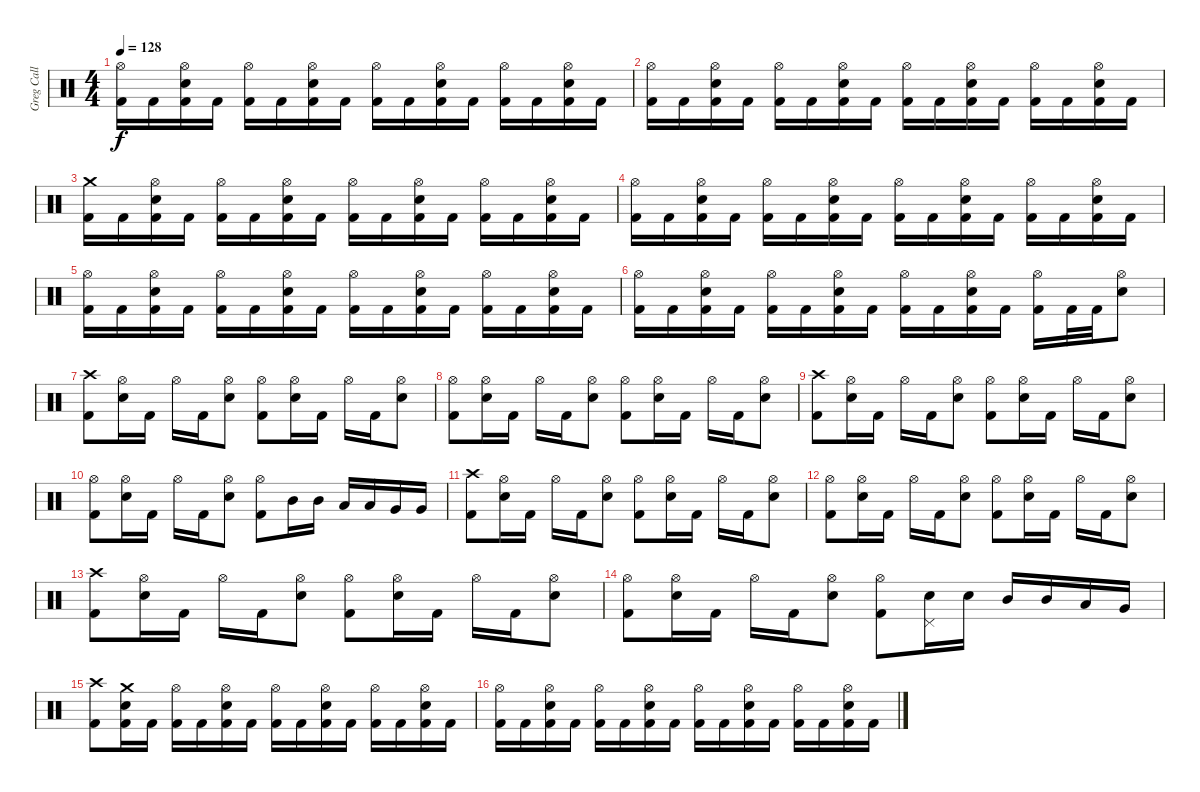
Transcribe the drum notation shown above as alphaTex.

\track ("Greg Call (Drums)" "Greg Call ") {instrument percussion}
\staff {score}
\articulation defaults
\ts (4 4)
\tempo 128
\clef neutral
\ks c
("Hi-Hat (open)" "Kick (hit) 2").16{dy f} "Kick (hit) 2".16 ("Hi-Hat (open)" "Snare (hit) 2" "Kick (hit) 2").16 "Kick (hit) 2".16 ("Hi-Hat (open)" "Kick (hit) 2").16 "Kick (hit) 2".16 ("Snare (hit) 2" "Hi-Hat (open)" "Kick (hit) 2").16 "Kick (hit) 2".16 ("Hi-Hat (open)" "Kick (hit) 2").16 "Kick (hit) 2".16 ("Snare (hit) 2" "Hi-Hat (open)" "Kick (hit) 2").16 "Kick (hit) 2".16 ("Hi-Hat (open)" "Kick (hit) 2").16 "Kick (hit) 2".16 ("Snare (hit) 2" "Hi-Hat (open)" "Kick (hit) 2").16 "Kick (hit) 2".16 |
("Hi-Hat (open)" "Kick (hit) 2").16 "Kick (hit) 2".16 ("Hi-Hat (open)" "Snare (hit) 2" "Kick (hit) 2").16 "Kick (hit) 2".16 ("Hi-Hat (open)" "Kick (hit) 2").16 "Kick (hit) 2".16 ("Snare (hit) 2" "Hi-Hat (open)" "Kick (hit) 2").16 "Kick (hit) 2".16 ("Hi-Hat (open)" "Kick (hit) 2").16 "Kick (hit) 2".16 ("Snare (hit) 2" "Hi-Hat (open)" "Kick (hit) 2").16 "Kick (hit) 2".16 ("Hi-Hat (open)" "Kick (hit) 2").16 "Kick (hit) 2".16 ("Snare (hit) 2" "Hi-Hat (open)" "Kick (hit) 2").16 "Kick (hit) 2".16 |
("Crash medium (hit)" "Kick (hit) 2").16 "Kick (hit) 2".16 ("Hi-Hat (open)" "Snare (hit) 2" "Kick (hit) 2").16 "Kick (hit) 2".16 ("Hi-Hat (open)" "Kick (hit) 2").16 "Kick (hit) 2".16 ("Snare (hit) 2" "Hi-Hat (open)" "Kick (hit) 2").16 "Kick (hit) 2".16 ("Hi-Hat (open)" "Kick (hit) 2").16 "Kick (hit) 2".16 ("Snare (hit) 2" "Hi-Hat (open)" "Kick (hit) 2").16 "Kick (hit) 2".16 ("Hi-Hat (open)" "Kick (hit) 2").16 "Kick (hit) 2".16 ("Snare (hit) 2" "Hi-Hat (open)" "Kick (hit) 2").16 "Kick (hit) 2".16 |
("Hi-Hat (open)" "Kick (hit) 2").16 "Kick (hit) 2".16 ("Hi-Hat (open)" "Snare (hit) 2" "Kick (hit) 2").16 "Kick (hit) 2".16 ("Hi-Hat (open)" "Kick (hit) 2").16 "Kick (hit) 2".16 ("Snare (hit) 2" "Hi-Hat (open)" "Kick (hit) 2").16 "Kick (hit) 2".16 ("Hi-Hat (open)" "Kick (hit) 2").16 "Kick (hit) 2".16 ("Snare (hit) 2" "Hi-Hat (open)" "Kick (hit) 2").16 "Kick (hit) 2".16 ("Hi-Hat (open)" "Kick (hit) 2").16 "Kick (hit) 2".16 ("Snare (hit) 2" "Hi-Hat (open)" "Kick (hit) 2").16 "Kick (hit) 2".16 |
("Hi-Hat (open)" "Kick (hit) 2").16 "Kick (hit) 2".16 ("Hi-Hat (open)" "Snare (hit) 2" "Kick (hit) 2").16 "Kick (hit) 2".16 ("Hi-Hat (open)" "Kick (hit) 2").16 "Kick (hit) 2".16 ("Snare (hit) 2" "Hi-Hat (open)" "Kick (hit) 2").16 "Kick (hit) 2".16 ("Hi-Hat (open)" "Kick (hit) 2").16 "Kick (hit) 2".16 ("Snare (hit) 2" "Hi-Hat (open)" "Kick (hit) 2").16 "Kick (hit) 2".16 ("Hi-Hat (open)" "Kick (hit) 2").16 "Kick (hit) 2".16 ("Snare (hit) 2" "Hi-Hat (open)" "Kick (hit) 2").16 "Kick (hit) 2".16 |
("Hi-Hat (open)" "Kick (hit) 2").16 "Kick (hit) 2".16 ("Hi-Hat (open)" "Snare (hit) 2" "Kick (hit) 2").16 "Kick (hit) 2".16 ("Hi-Hat (open)" "Kick (hit) 2").16 "Kick (hit) 2".16 ("Snare (hit) 2" "Hi-Hat (open)" "Kick (hit) 2").16 "Kick (hit) 2".16 ("Hi-Hat (open)" "Kick (hit) 2").16 "Kick (hit) 2".16 ("Snare (hit) 2" "Hi-Hat (open)" "Kick (hit) 2").16 "Kick (hit) 2".16 ("Hi-Hat (open)" "Kick (hit) 2").16 "Kick (hit) 2".32 "Kick (hit) 2".32 ("Hi-Hat (open)" "Snare (hit) 2").8 |
("Crash high (hit)" "Kick (hit) 2").8 ("Hi-Hat (open)" "Snare (hit) 2").16 "Kick (hit) 2".16 "Hi-Hat (open)".16 "Kick (hit) 2".16 ("Hi-Hat (open)" "Snare (hit) 2").8 ("Hi-Hat (open)" "Kick (hit) 2").8 ("Hi-Hat (open)" "Snare (hit) 2").16 "Kick (hit) 2".16 "Hi-Hat (open)".16 "Kick (hit) 2".16 ("Hi-Hat (open)" "Snare (hit) 2").8 |
("Hi-Hat (open)" "Kick (hit) 2").8 ("Hi-Hat (open)" "Snare (hit) 2").16 "Kick (hit) 2".16 "Hi-Hat (open)".16 "Kick (hit) 2".16 ("Hi-Hat (open)" "Snare (hit) 2").8 ("Hi-Hat (open)" "Kick (hit) 2").8 ("Hi-Hat (open)" "Snare (hit) 2").16 "Kick (hit) 2".16 "Hi-Hat (open)".16 "Kick (hit) 2".16 ("Hi-Hat (open)" "Snare (hit) 2").8 |
("Crash high (hit)" "Kick (hit) 2").8 ("Hi-Hat (open)" "Snare (hit) 2").16 "Kick (hit) 2".16 "Hi-Hat (open)".16 "Kick (hit) 2".16 ("Hi-Hat (open)" "Snare (hit) 2").8 ("Hi-Hat (open)" "Kick (hit) 2").8 ("Hi-Hat (open)" "Snare (hit) 2").16 "Kick (hit) 2".16 "Hi-Hat (open)".16 "Kick (hit) 2".16 ("Hi-Hat (open)" "Snare (hit) 2").8 |
("Hi-Hat (open)" "Kick (hit) 2").8 ("Hi-Hat (open)" "Snare (hit) 2").16 "Kick (hit) 2".16 "Hi-Hat (open)".16 "Kick (hit) 2".16 ("Hi-Hat (open)" "Snare (hit) 2").8 ("Hi-Hat (open)" "Kick (hit) 2").8 "Mid Tom (hit)".16 "Mid Tom (hit)".16 "Low Tom (hit)".16 "Low Tom (hit)".16 "Very Low Tom (hit)".16 "Very Low Tom (hit)".16 |
("Crash high (hit)" "Kick (hit) 2").8 ("Hi-Hat (open)" "Snare (hit) 2").16 "Kick (hit) 2".16 "Hi-Hat (open)".16 "Kick (hit) 2".16 ("Hi-Hat (open)" "Snare (hit) 2").8 ("Hi-Hat (open)" "Kick (hit) 2").8 ("Hi-Hat (open)" "Snare (hit) 2").16 "Kick (hit) 2".16 "Hi-Hat (open)".16 "Kick (hit) 2".16 ("Hi-Hat (open)" "Snare (hit) 2").8 |
("Hi-Hat (open)" "Kick (hit) 2").8 ("Hi-Hat (open)" "Snare (hit) 2").16 "Kick (hit) 2".16 "Hi-Hat (open)".16 "Kick (hit) 2".16 ("Hi-Hat (open)" "Snare (hit) 2").8 ("Hi-Hat (open)" "Kick (hit) 2").8 ("Hi-Hat (open)" "Snare (hit) 2").16 "Kick (hit) 2".16 "Hi-Hat (open)".16 "Kick (hit) 2".16 ("Hi-Hat (open)" "Snare (hit) 2").8 |
("Crash high (hit)" "Kick (hit) 2").8 ("Hi-Hat (open)" "Snare (hit) 2").16 "Kick (hit) 2".16 "Hi-Hat (open)".16 "Kick (hit) 2".16 ("Hi-Hat (open)" "Snare (hit) 2").8 ("Hi-Hat (open)" "Kick (hit) 2").8 ("Hi-Hat (open)" "Snare (hit) 2").16 "Kick (hit) 2".16 "Hi-Hat (open)".16 "Kick (hit) 2".16 ("Hi-Hat (open)" "Snare (hit) 2").8 |
("Hi-Hat (open)" "Kick (hit) 2").8 ("Hi-Hat (open)" "Snare (hit) 2").16 "Kick (hit) 2".16 "Hi-Hat (open)".16 "Kick (hit) 2".16 ("Hi-Hat (open)" "Snare (hit) 2").8 ("Hi-Hat (open)" "Kick (hit) 2").8 ("Pedal Hi-Hat (hit)" "Snare (hit) 2").16 "Snare (hit) 2".16 "Mid Tom (hit)".16 "Mid Tom (hit)".16 "Low Tom (hit)".16 "Very Low Tom (hit)".16 |
("Kick (hit) 2" "Crash high (hit)").8 ("Crash medium (hit)" "Snare (hit) 2" "Kick (hit) 2").16 "Kick (hit) 2".16 ("Hi-Hat (open)" "Kick (hit) 2").16 "Kick (hit) 2".16 ("Kick (hit) 2" "Hi-Hat (open)" "Snare (hit) 2").16 "Kick (hit) 2".16 ("Hi-Hat (open)" "Kick (hit) 2").16 "Kick (hit) 2".16 ("Hi-Hat (open)" "Snare (hit) 2" "Kick (hit) 2").16 "Kick (hit) 2".16 ("Hi-Hat (open)" "Kick (hit) 2").16 "Kick (hit) 2".16 ("Hi-Hat (open)" "Snare (hit) 2" "Kick (hit) 2").16 "Kick (hit) 2".16 |
("Hi-Hat (open)" "Kick (hit) 2").16 "Kick (hit) 2".16 ("Hi-Hat (open)" "Snare (hit) 2" "Kick (hit) 2").16 "Kick (hit) 2".16 ("Hi-Hat (open)" "Kick (hit) 2").16 "Kick (hit) 2".16 ("Snare (hit) 2" "Hi-Hat (open)" "Kick (hit) 2").16 "Kick (hit) 2".16 ("Hi-Hat (open)" "Kick (hit) 2").16 "Kick (hit) 2".16 ("Snare (hit) 2" "Hi-Hat (open)" "Kick (hit) 2").16 "Kick (hit) 2".16 ("Hi-Hat (open)" "Kick (hit) 2").16 "Kick (hit) 2".16 ("Snare (hit) 2" "Hi-Hat (open)" "Kick (hit) 2").16 "Kick (hit) 2".16
